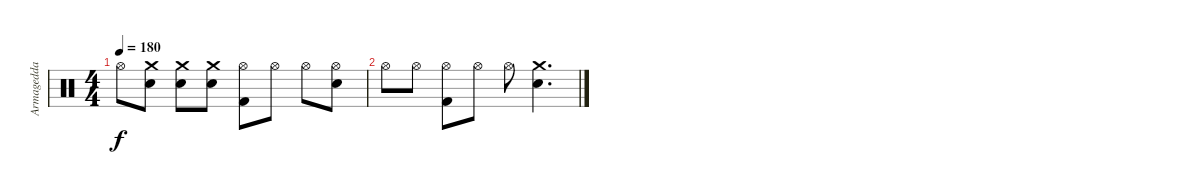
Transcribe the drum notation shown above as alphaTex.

\track ("Armagedda" "Armagedda") {instrument percussion}
\staff {score}
\articulation defaults
\ts (4 4)
\tempo 180
\clef neutral
\ks c "Hi-Hat (open)".8{dy f}
("Crash medium (hit)" "Electric Snare (hit)").8 ("Crash medium (hit)" "Electric Snare (hit)").8 ("Crash medium (hit)" "Electric Snare (hit)").8 ("Hi-Hat (open)" "Kick (hit) 2").8 "Hi-Hat (open)".8 "Hi-Hat (open)".8 ("Hi-Hat (open)" "Electric Snare (hit)").8 |
"Hi-Hat (open)".8 "Hi-Hat (open)".8 ("Hi-Hat (open)" "Kick (hit) 2").8 "Hi-Hat (open)".8 "Hi-Hat (open)".8 ("Crash medium (hit)" "Electric Snare (hit)").4{d}
